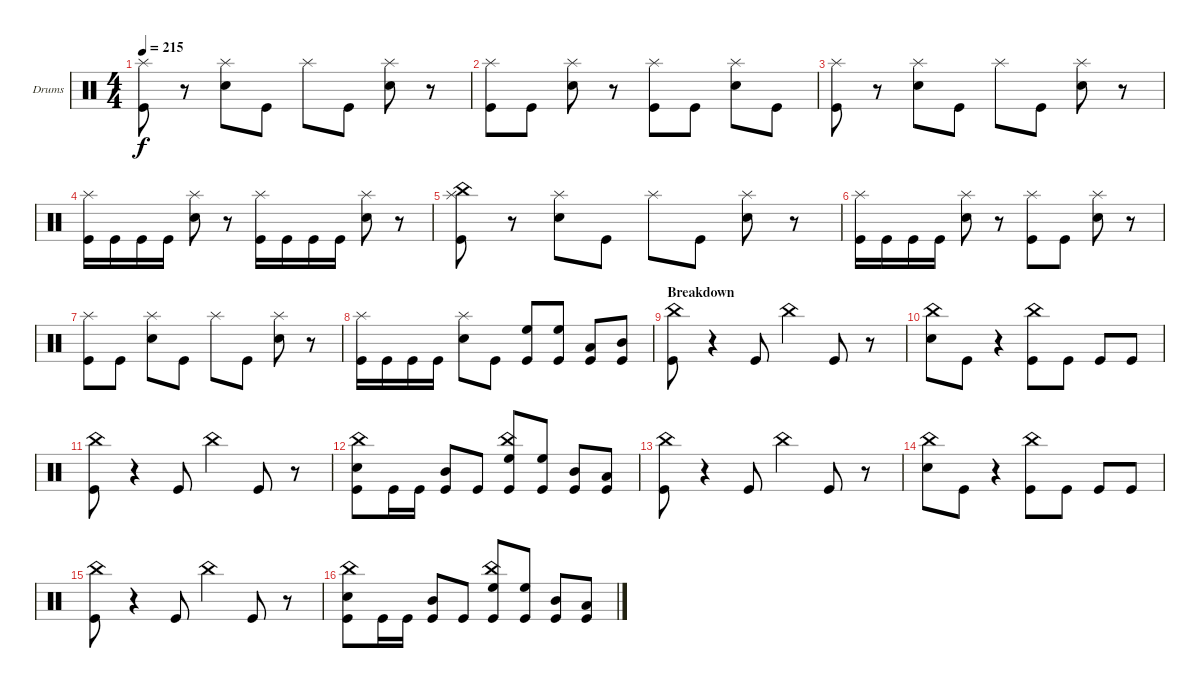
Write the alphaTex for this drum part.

\defaultSystemsLayout 4
\bracketExtendMode groupsimilarinstruments
\firstSystemTrackNameOrientation horizontal
\otherSystemsTrackNameOrientation horizontal
\track ("Drumkit" "Drums") {instrument percussion}
\staff {score}
\articulation defaults
\ts (4 4)
\tempo 215
\clef neutral
\ks c
("Splash (hit)" "Kick (hit)").8{dy f} r.8 ("Splash (hit)" "Snare (hit) 2").8 "Kick (hit)".8 "Splash (hit)".8 "Kick (hit)".8 ("Splash (hit)" "Snare (hit) 2").8 r.8 |
("Splash (hit)" "Kick (hit)").8 "Kick (hit)".8 ("Splash (hit)" "Snare (hit) 2").8 r.8 ("Splash (hit)" "Kick (hit)").8 "Kick (hit)".8 ("Splash (hit)" "Snare (hit) 2").8 "Kick (hit)".8 |
("Splash (hit)" "Kick (hit)").8 r.8 ("Splash (hit)" "Snare (hit) 2").8 "Kick (hit)".8 "Splash (hit)".8 "Kick (hit)".8 ("Splash (hit)" "Snare (hit) 2").8 r.8 |
("Splash (hit)" "Kick (hit)").16 "Kick (hit)".16 "Kick (hit)".16 "Kick (hit)".16 ("Splash (hit)" "Snare (hit) 2").8 r.8 ("Splash (hit)" "Kick (hit)").16 "Kick (hit)".16 "Kick (hit)".16 "Kick (hit)".16 ("Splash (hit)" "Snare (hit) 2").8 r.8 |
("Splash (hit)" "Kick (hit)" "China (hit)").8 r.8 ("Splash (hit)" "Snare (hit) 2").8 "Kick (hit)".8 "Splash (hit)".8 "Kick (hit)".8 ("Splash (hit)" "Snare (hit) 2").8 r.8 |
("Splash (hit)" "Kick (hit)").16 "Kick (hit)".16 "Kick (hit)".16 "Kick (hit)".16 ("Splash (hit)" "Snare (hit) 2").8 r.8 ("Splash (hit)" "Kick (hit)").8 "Kick (hit)".8 ("Splash (hit)" "Snare (hit) 2").8 r.8 |
("Splash (hit)" "Kick (hit)").8 "Kick (hit)".8 ("Splash (hit)" "Snare (hit) 2").8 "Kick (hit)".8 "Splash (hit)".8 "Kick (hit)".8 ("Splash (hit)" "Snare (hit) 2").8 r.8 |
("Splash (hit)" "Kick (hit)").16 "Kick (hit)".16 "Kick (hit)".16 "Kick (hit)".16 ("Splash (hit)" "Snare (hit) 2").8 "Kick (hit)".8 ("Kick (hit)" "High Floor Tom (hit)").8 ("Kick (hit)" "High Floor Tom (hit)").8 ("Kick (hit)" "Low Tom (hit)").8 ("Kick (hit)" "Mid Tom (hit)").8 |
\section ("" "Breakdown")
("Kick (hit)" "China (hit)").8 r.4 "Kick (hit)".8 "China (hit)".4 "Kick (hit)".8 r.8 |
("China (hit)" "Snare (hit) 2").8 "Kick (hit)".8 r.4 ("Kick (hit)" "China (hit)").8 "Kick (hit)".8 "Kick (hit)".8 "Kick (hit)".8 |
("Kick (hit)" "China (hit)").8 r.4 "Kick (hit)".8 "China (hit)".4 "Kick (hit)".8 r.8 |
("Kick (hit)" "Snare (hit) 2" "China (hit)").8 "Kick (hit)".16 "Kick (hit)".16 ("Kick (hit)" "Mid Tom (hit)").8 "Kick (hit)".8 ("Kick (hit)" "High Floor Tom (hit)" "China (hit)").8 ("Kick (hit)" "High Floor Tom (hit)").8 ("Kick (hit)" "Mid Tom (hit)").8 ("Kick (hit)" "Low Tom (hit)").8 |
("Kick (hit)" "China (hit)").8 r.4 "Kick (hit)".8 "China (hit)".4 "Kick (hit)".8 r.8 |
("China (hit)" "Snare (hit) 2").8 "Kick (hit)".8 r.4 ("Kick (hit)" "China (hit)").8 "Kick (hit)".8 "Kick (hit)".8 "Kick (hit)".8 |
("Kick (hit)" "China (hit)").8 r.4 "Kick (hit)".8 "China (hit)".4 "Kick (hit)".8 r.8 |
("Kick (hit)" "Snare (hit) 2" "China (hit)").8 "Kick (hit)".16 "Kick (hit)".16 ("Kick (hit)" "Mid Tom (hit)").8 "Kick (hit)".8 ("Kick (hit)" "High Floor Tom (hit)" "China (hit)").8 ("Kick (hit)" "High Floor Tom (hit)").8 ("Kick (hit)" "Mid Tom (hit)").8 ("Kick (hit)" "Low Tom (hit)").8
